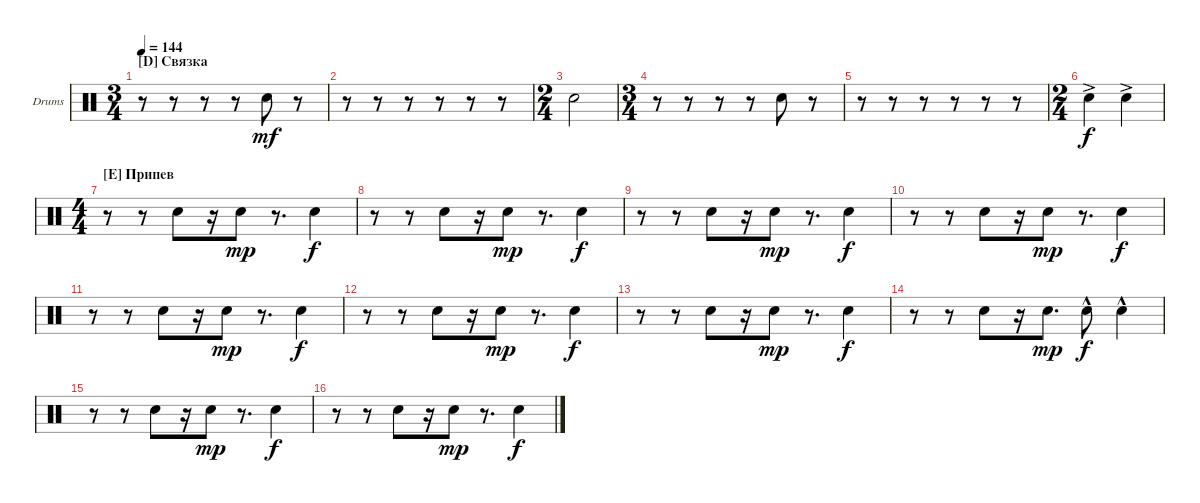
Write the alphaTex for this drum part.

\defaultSystemsLayout 4
\bracketExtendMode groupsimilarinstruments
\firstSystemTrackNameOrientation horizontal
\otherSystemsTrackNameOrientation horizontal
\track ("Snare" "Drums") {instrument percussion}
\staff {score}
\articulation defaults
\ts (3 4)
\section ("D" "Связка")
\tempo 144
\clef neutral
\ks c
r.8{dy f} r.8 r.8 r.8 "Snare (hit) 2".8{dy mf} r.8 |
r.8 r.8 r.8 r.8 r.8 r.8 |
\ts (2 4)
"Snare (hit) 2".2 |
\ts (3 4)
r.8 r.8 r.8 r.8 "Snare (hit) 2".8 r.8 |
r.8 r.8 r.8 r.8 r.8 r.8 |
\ts (2 4)
"Snare (hit) 2"{ac}.4{dy f} "Snare (hit) 2"{ac}.4 |
\ts (4 4)
\section ("E" "Припев")
r.8 r.8 "Snare (hit) 2".8 r.16 "Snare (hit) 2".8{dy mp} r.8{d} "Snare (hit) 2".4{dy f} |
r.8 r.8 "Snare (hit) 2".8 r.16 "Snare (hit) 2".8{dy mp} r.8{d} "Snare (hit) 2".4{dy f} |
r.8 r.8 "Snare (hit) 2".8 r.16 "Snare (hit) 2".8{dy mp} r.8{d} "Snare (hit) 2".4{dy f} |
r.8 r.8 "Snare (hit) 2".8 r.16 "Snare (hit) 2".8{dy mp} r.8{d} "Snare (hit) 2".4{dy f} |
r.8 r.8 "Snare (hit) 2".8 r.16 "Snare (hit) 2".8{dy mp} r.8{d} "Snare (hit) 2".4{dy f} |
r.8 r.8 "Snare (hit) 2".8 r.16 "Snare (hit) 2".8{dy mp} r.8{d} "Snare (hit) 2".4{dy f} |
r.8 r.8 "Snare (hit) 2".8 r.16 "Snare (hit) 2".8{dy mp} r.8{d} "Snare (hit) 2".4{dy f} |
r.8 r.8 "Snare (hit) 2".8 r.16 "Snare (hit) 2".8{d dy mp} "Snare (hit) 2"{hac}.8{dy f} "Snare (hit) 2"{hac}.4 |
r.8 r.8 "Snare (hit) 2".8 r.16 "Snare (hit) 2".8{dy mp} r.8{d} "Snare (hit) 2".4{dy f} |
r.8 r.8 "Snare (hit) 2".8 r.16 "Snare (hit) 2".8{dy mp} r.8{d} "Snare (hit) 2".4{dy f}
